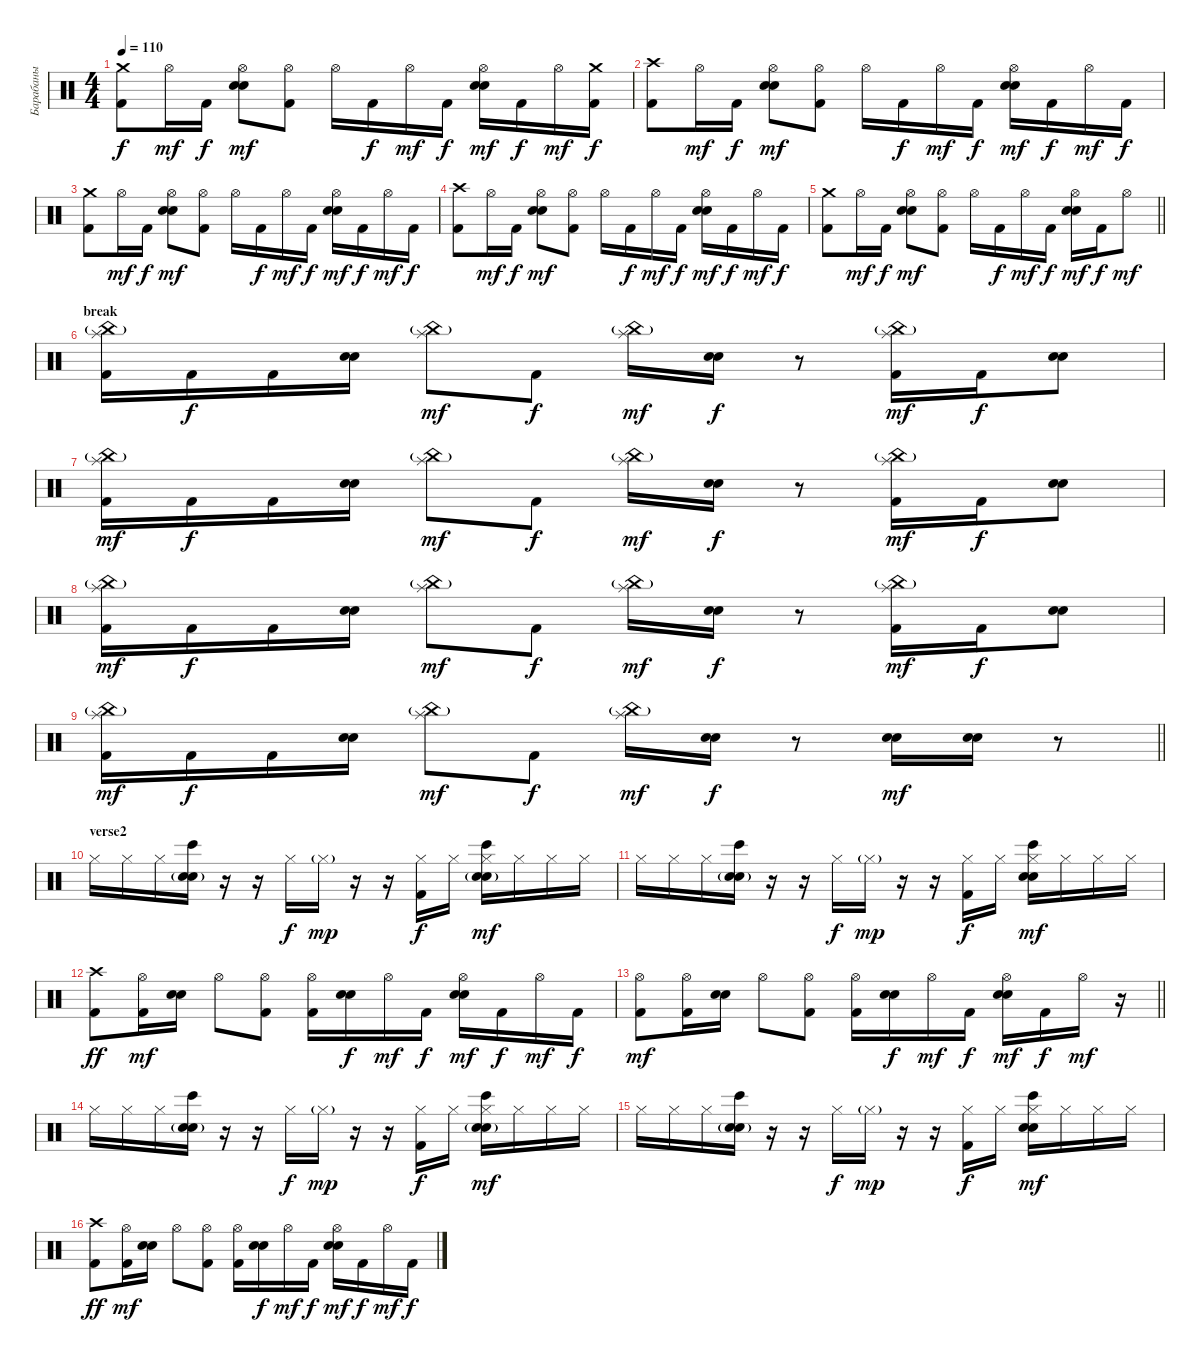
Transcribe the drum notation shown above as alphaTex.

\track ("Барабаны" "Барабаны") {instrument percussion}
\staff {score}
\articulation defaults
\ts (4 4)
\tempo 110
\clef neutral
\ks c
("Crash medium (hit)" "Kick (hit) 2").8{dy f} "Hi-Hat (open)".16{dy mf} "Kick (hit) 2".16{dy f} ("Hi-Hat (open)" "Electric Snare (hit)" "Snare (hit) 2").8{dy mf} ("Hi-Hat (open)" "Kick (hit) 2").8 "Hi-Hat (open)".16 "Kick (hit) 2".16{dy f} "Hi-Hat (open)".16{dy mf} "Kick (hit) 2".16{dy f} ("Hi-Hat (open)" "Electric Snare (hit)" "Snare (hit) 2").16{dy mf} "Kick (hit) 2".16{dy f} "Hi-Hat (open)".16{dy mf} ("Crash medium (hit)" "Kick (hit) 2").16{dy f} |
("Crash high (hit)" "Kick (hit) 2").8 "Hi-Hat (open)".16{dy mf} "Kick (hit) 2".16{dy f} ("Hi-Hat (open)" "Electric Snare (hit)" "Snare (hit) 2").8{dy mf} ("Hi-Hat (open)" "Kick (hit) 2").8 "Hi-Hat (open)".16 "Kick (hit) 2".16{dy f} "Hi-Hat (open)".16{dy mf} "Kick (hit) 2".16{dy f} ("Hi-Hat (open)" "Electric Snare (hit)" "Snare (hit) 2").16{dy mf} "Kick (hit) 2".16{dy f} "Hi-Hat (open)".16{dy mf} "Kick (hit) 2".16{dy f} |
("Crash medium (hit)" "Kick (hit) 2").8 "Hi-Hat (open)".16{dy mf} "Kick (hit) 2".16{dy f} ("Hi-Hat (open)" "Electric Snare (hit)" "Snare (hit) 2").8{dy mf} ("Hi-Hat (open)" "Kick (hit) 2").8 "Hi-Hat (open)".16 "Kick (hit) 2".16{dy f} "Hi-Hat (open)".16{dy mf} "Kick (hit) 2".16{dy f} ("Hi-Hat (open)" "Electric Snare (hit)" "Snare (hit) 2").16{dy mf} "Kick (hit) 2".16{dy f} "Hi-Hat (open)".16{dy mf} "Kick (hit) 2".16{dy f} |
("Crash high (hit)" "Kick (hit) 2").8 "Hi-Hat (open)".16{dy mf} "Kick (hit) 2".16{dy f} ("Hi-Hat (open)" "Electric Snare (hit)" "Snare (hit) 2").8{dy mf} ("Hi-Hat (open)" "Kick (hit) 2").8 "Hi-Hat (open)".16 "Kick (hit) 2".16{dy f} "Hi-Hat (open)".16{dy mf} "Kick (hit) 2".16{dy f} ("Hi-Hat (open)" "Electric Snare (hit)" "Snare (hit) 2").16{dy mf} "Kick (hit) 2".16{dy f} "Hi-Hat (open)".16{dy mf} "Kick (hit) 2".16{dy f} |
\barLineRight lightlight
("Crash medium (hit)" "Kick (hit) 2").8 "Hi-Hat (open)".16{dy mf} "Kick (hit) 2".16{dy f} ("Hi-Hat (open)" "Electric Snare (hit)" "Snare (hit) 2").8{dy mf} ("Hi-Hat (open)" "Kick (hit) 2").8 "Hi-Hat (open)".16 "Kick (hit) 2".16{dy f} "Hi-Hat (open)".16{dy mf} "Kick (hit) 2".16{dy f} ("Hi-Hat (open)" "Electric Snare (hit)" "Snare (hit) 2").16{dy mf} "Kick (hit) 2".16{dy f} "Hi-Hat (open)".8{dy mf} |
\section ("" "break")
("Splash (hit)" "China (hit)"{g} "Kick (hit) 2").16 "Kick (hit) 2".16{dy f} "Kick (hit) 2".16 ("Electric Snare (hit)" "Snare (hit) 2").16 ("Splash (hit)" "China (hit)"{g}).8{dy mf} "Kick (hit) 2".8{dy f} ("Splash (hit)" "China (hit)"{g}).16{dy mf} ("Electric Snare (hit)" "Snare (hit) 2").16{dy f} r.8 ("Splash (hit)" "China (hit)"{g} "Kick (hit) 2").16{dy mf} "Kick (hit) 2".16{dy f} ("Electric Snare (hit)" "Snare (hit) 2").8 |
("Splash (hit)" "China (hit)"{g} "Kick (hit) 2").16{dy mf} "Kick (hit) 2".16{dy f} "Kick (hit) 2".16 ("Electric Snare (hit)" "Snare (hit) 2").16 ("Splash (hit)" "China (hit)"{g}).8{dy mf} "Kick (hit) 2".8{dy f} ("Splash (hit)" "China (hit)"{g}).16{dy mf} ("Electric Snare (hit)" "Snare (hit) 2").16{dy f} r.8 ("Splash (hit)" "China (hit)"{g} "Kick (hit) 2").16{dy mf} "Kick (hit) 2".16{dy f} ("Electric Snare (hit)" "Snare (hit) 2").8 |
("Splash (hit)" "China (hit)"{g} "Kick (hit) 2").16{dy mf} "Kick (hit) 2".16{dy f} "Kick (hit) 2".16 ("Electric Snare (hit)" "Snare (hit) 2").16 ("Splash (hit)" "China (hit)"{g}).8{dy mf} "Kick (hit) 2".8{dy f} ("Splash (hit)" "China (hit)"{g}).16{dy mf} ("Electric Snare (hit)" "Snare (hit) 2").16{dy f} r.8 ("Splash (hit)" "China (hit)"{g} "Kick (hit) 2").16{dy mf} "Kick (hit) 2".16{dy f} ("Electric Snare (hit)" "Snare (hit) 2").8 |
\barLineRight lightlight
("Splash (hit)" "China (hit)"{g} "Kick (hit) 2").16{dy mf} "Kick (hit) 2".16{dy f} "Kick (hit) 2".16 ("Electric Snare (hit)" "Snare (hit) 2").16 ("Splash (hit)" "China (hit)"{g}).8{dy mf} "Kick (hit) 2".8{dy f} ("Splash (hit)" "China (hit)"{g}).16{dy mf} ("Electric Snare (hit)" "Snare (hit) 2").16{dy f} r.8 ("Electric Snare (hit)" "Snare (hit) 2").16{dy mf} ("Electric Snare (hit)" "Snare (hit) 2").16 r.8 |
\section ("" "verse2")
"Hi-Hat (closed)".16 "Hi-Hat (closed)".16 "Hi-Hat (closed)".16 ("Bongo High (hit)" "Electric Snare (hit)"{g} "Snare (hit) 2").16 r.16 r.16 "Hi-Hat (closed)".16{dy f} "Hi-Hat (closed)"{g}.16{dy mp} r.16 r.16 ("Hi-Hat (closed)" "Kick (hit) 2").16{dy f} "Hi-Hat (closed)".16 ("Hi-Hat (closed)" "Bongo High (hit)" "Electric Snare (hit)"{g} "Snare (hit) 2").16{dy mf} "Hi-Hat (closed)".16 "Hi-Hat (closed)".16 "Hi-Hat (closed)".16 |
"Hi-Hat (closed)".16 "Hi-Hat (closed)".16 "Hi-Hat (closed)".16 ("Bongo High (hit)" "Electric Snare (hit)"{g} "Snare (hit) 2").16 r.16 r.16 "Hi-Hat (closed)".16{dy f} "Hi-Hat (closed)"{g}.16{dy mp} r.16 r.16 ("Hi-Hat (closed)" "Kick (hit) 2").16{dy f} "Hi-Hat (closed)".16 ("Hi-Hat (closed)" "Bongo High (hit)" "Electric Snare (hit)" "Snare (hit) 2").16{dy mf} "Hi-Hat (closed)".16 "Hi-Hat (closed)".16 "Hi-Hat (closed)".16 |
("Crash high (hit)" "Kick (hit) 2").8{dy ff} ("Hi-Hat (open)" "Kick (hit) 2").16{dy mf} ("Electric Snare (hit)" "Snare (hit) 2").16 "Hi-Hat (open)".8 ("Hi-Hat (open)" "Kick (hit) 2").8 ("Hi-Hat (open)" "Kick (hit) 2").16 ("Electric Snare (hit)" "Snare (hit) 2").16{dy f} "Hi-Hat (open)".16{dy mf} "Kick (hit) 2".16{dy f} ("Hi-Hat (open)" "Electric Snare (hit)" "Snare (hit) 2").16{dy mf} "Kick (hit) 2".16{dy f} "Hi-Hat (open)".16{dy mf} "Kick (hit) 2".16{dy f} |
\barLineRight lightlight
("Hi-Hat (open)" "Kick (hit) 2").8{dy mf} ("Hi-Hat (open)" "Kick (hit) 2").16 ("Electric Snare (hit)" "Snare (hit) 2").16 "Hi-Hat (open)".8 ("Hi-Hat (open)" "Kick (hit) 2").8 ("Hi-Hat (open)" "Kick (hit) 2").16 ("Electric Snare (hit)" "Snare (hit) 2").16{dy f} "Hi-Hat (open)".16{dy mf} "Kick (hit) 2".16{dy f} ("Hi-Hat (open)" "Electric Snare (hit)" "Snare (hit) 2").16{dy mf} "Kick (hit) 2".16{dy f} "Hi-Hat (open)".16{dy mf} r.16 |
"Hi-Hat (closed)".16 "Hi-Hat (closed)".16 "Hi-Hat (closed)".16 ("Bongo High (hit)" "Electric Snare (hit)"{g} "Snare (hit) 2").16 r.16 r.16 "Hi-Hat (closed)".16{dy f} "Hi-Hat (closed)"{g}.16{dy mp} r.16 r.16 ("Hi-Hat (closed)" "Kick (hit) 2").16{dy f} "Hi-Hat (closed)".16 ("Hi-Hat (closed)" "Bongo High (hit)" "Electric Snare (hit)"{g} "Snare (hit) 2").16{dy mf} "Hi-Hat (closed)".16 "Hi-Hat (closed)".16 "Hi-Hat (closed)".16 |
"Hi-Hat (closed)".16 "Hi-Hat (closed)".16 "Hi-Hat (closed)".16 ("Bongo High (hit)" "Electric Snare (hit)"{g} "Snare (hit) 2").16 r.16 r.16 "Hi-Hat (closed)".16{dy f} "Hi-Hat (closed)"{g}.16{dy mp} r.16 r.16 ("Hi-Hat (closed)" "Kick (hit) 2").16{dy f} "Hi-Hat (closed)".16 ("Hi-Hat (closed)" "Bongo High (hit)" "Electric Snare (hit)" "Snare (hit) 2").16{dy mf} "Hi-Hat (closed)".16 "Hi-Hat (closed)".16 "Hi-Hat (closed)".16 |
("Crash high (hit)" "Kick (hit) 2").8{dy ff} ("Hi-Hat (open)" "Kick (hit) 2").16{dy mf} ("Electric Snare (hit)" "Snare (hit) 2").16 "Hi-Hat (open)".8 ("Hi-Hat (open)" "Kick (hit) 2").8 ("Hi-Hat (open)" "Kick (hit) 2").16 ("Electric Snare (hit)" "Snare (hit) 2").16{dy f} "Hi-Hat (open)".16{dy mf} "Kick (hit) 2".16{dy f} ("Hi-Hat (open)" "Electric Snare (hit)" "Snare (hit) 2").16{dy mf} "Kick (hit) 2".16{dy f} "Hi-Hat (open)".16{dy mf} "Kick (hit) 2".16{dy f}
